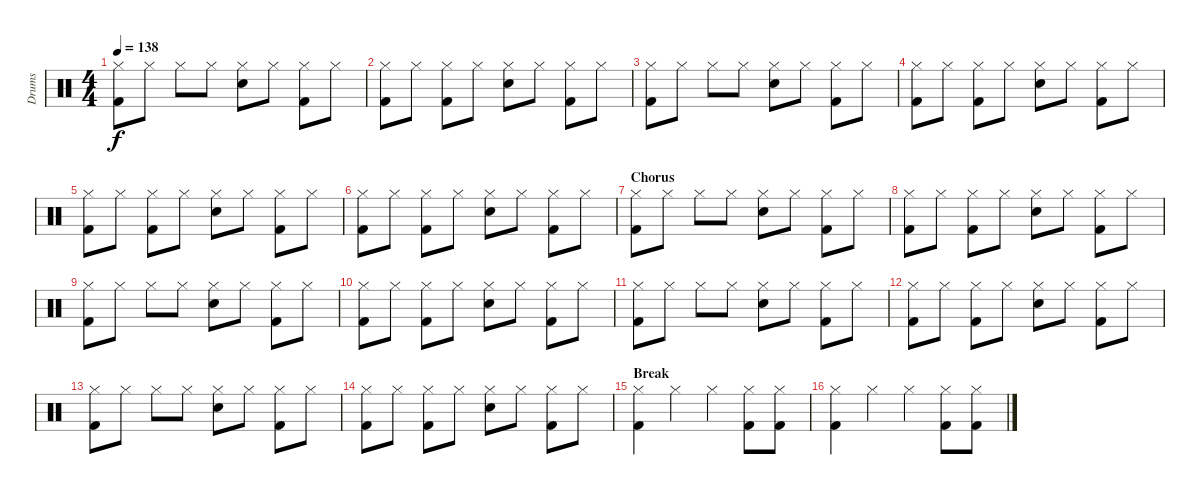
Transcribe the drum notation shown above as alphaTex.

\track ("Drums" "Drums") {instrument percussion}
\staff {score}
\articulation defaults
\ts (4 4)
\tempo 138
\clef neutral
\ks c
("Hi-Hat (closed)" "Kick (hit) 2").8{dy f} "Hi-Hat (closed)".8 "Hi-Hat (closed)".8 "Hi-Hat (closed)".8 ("Hi-Hat (closed)" "Electric Snare (hit)").8 "Hi-Hat (closed)".8 ("Hi-Hat (closed)" "Kick (hit) 2").8 "Hi-Hat (closed)".8 |
("Hi-Hat (closed)" "Kick (hit) 2").8 "Hi-Hat (closed)".8 ("Hi-Hat (closed)" "Kick (hit) 2").8 "Hi-Hat (closed)".8 ("Hi-Hat (closed)" "Electric Snare (hit)").8 "Hi-Hat (closed)".8 ("Hi-Hat (closed)" "Kick (hit) 2").8 "Hi-Hat (closed)".8 |
("Hi-Hat (closed)" "Kick (hit) 2").8 "Hi-Hat (closed)".8 "Hi-Hat (closed)".8 "Hi-Hat (closed)".8 ("Hi-Hat (closed)" "Electric Snare (hit)").8 "Hi-Hat (closed)".8 ("Hi-Hat (closed)" "Kick (hit) 2").8 "Hi-Hat (closed)".8 |
("Hi-Hat (closed)" "Kick (hit) 2").8 "Hi-Hat (closed)".8 ("Hi-Hat (closed)" "Kick (hit) 2").8 "Hi-Hat (closed)".8 ("Hi-Hat (closed)" "Electric Snare (hit)").8 "Hi-Hat (closed)".8 ("Hi-Hat (closed)" "Kick (hit) 2").8 "Hi-Hat (closed)".8 |
("Hi-Hat (closed)" "Kick (hit) 2").8 "Hi-Hat (closed)".8 ("Hi-Hat (closed)" "Kick (hit) 2").8 "Hi-Hat (closed)".8 ("Hi-Hat (closed)" "Electric Snare (hit)").8 "Hi-Hat (closed)".8 ("Hi-Hat (closed)" "Kick (hit) 2").8 "Hi-Hat (closed)".8 |
("Hi-Hat (closed)" "Kick (hit) 2").8 "Hi-Hat (closed)".8 ("Hi-Hat (closed)" "Kick (hit) 2").8 "Hi-Hat (closed)".8 ("Hi-Hat (closed)" "Electric Snare (hit)").8 "Hi-Hat (closed)".8 ("Hi-Hat (closed)" "Kick (hit) 2").8 "Hi-Hat (closed)".8 |
\section ("" "Chorus")
("Hi-Hat (closed)" "Kick (hit) 2").8 "Hi-Hat (closed)".8 "Hi-Hat (closed)".8 "Hi-Hat (closed)".8 ("Hi-Hat (closed)" "Electric Snare (hit)").8 "Hi-Hat (closed)".8 ("Hi-Hat (closed)" "Kick (hit) 2").8 "Hi-Hat (closed)".8 |
("Hi-Hat (closed)" "Kick (hit) 2").8 "Hi-Hat (closed)".8 ("Hi-Hat (closed)" "Kick (hit) 2").8 "Hi-Hat (closed)".8 ("Hi-Hat (closed)" "Electric Snare (hit)").8 "Hi-Hat (closed)".8 ("Hi-Hat (closed)" "Kick (hit) 2").8 "Hi-Hat (closed)".8 |
("Hi-Hat (closed)" "Kick (hit) 2").8 "Hi-Hat (closed)".8 "Hi-Hat (closed)".8 "Hi-Hat (closed)".8 ("Hi-Hat (closed)" "Electric Snare (hit)").8 "Hi-Hat (closed)".8 ("Hi-Hat (closed)" "Kick (hit) 2").8 "Hi-Hat (closed)".8 |
("Hi-Hat (closed)" "Kick (hit) 2").8 "Hi-Hat (closed)".8 ("Hi-Hat (closed)" "Kick (hit) 2").8 "Hi-Hat (closed)".8 ("Hi-Hat (closed)" "Electric Snare (hit)").8 "Hi-Hat (closed)".8 ("Hi-Hat (closed)" "Kick (hit) 2").8 "Hi-Hat (closed)".8 |
("Hi-Hat (closed)" "Kick (hit) 2").8 "Hi-Hat (closed)".8 "Hi-Hat (closed)".8 "Hi-Hat (closed)".8 ("Hi-Hat (closed)" "Electric Snare (hit)").8 "Hi-Hat (closed)".8 ("Hi-Hat (closed)" "Kick (hit) 2").8 "Hi-Hat (closed)".8 |
("Hi-Hat (closed)" "Kick (hit) 2").8 "Hi-Hat (closed)".8 ("Hi-Hat (closed)" "Kick (hit) 2").8 "Hi-Hat (closed)".8 ("Hi-Hat (closed)" "Electric Snare (hit)").8 "Hi-Hat (closed)".8 ("Hi-Hat (closed)" "Kick (hit) 2").8 "Hi-Hat (closed)".8 |
("Hi-Hat (closed)" "Kick (hit) 2").8 "Hi-Hat (closed)".8 "Hi-Hat (closed)".8 "Hi-Hat (closed)".8 ("Hi-Hat (closed)" "Electric Snare (hit)").8 "Hi-Hat (closed)".8 ("Hi-Hat (closed)" "Kick (hit) 2").8 "Hi-Hat (closed)".8 |
("Hi-Hat (closed)" "Kick (hit) 2").8 "Hi-Hat (closed)".8 ("Hi-Hat (closed)" "Kick (hit) 2").8 "Hi-Hat (closed)".8 ("Hi-Hat (closed)" "Electric Snare (hit)").8 "Hi-Hat (closed)".8 ("Hi-Hat (closed)" "Kick (hit) 2").8 "Hi-Hat (closed)".8 |
\section ("" "Break")
("Hi-Hat (closed)" "Kick (hit) 2").4 "Hi-Hat (closed)".4 "Hi-Hat (closed)".4 ("Hi-Hat (closed)" "Kick (hit) 2").8 ("Hi-Hat (closed)" "Kick (hit) 2").8 |
("Hi-Hat (closed)" "Kick (hit) 2").4 "Hi-Hat (closed)".4 "Hi-Hat (closed)".4 ("Hi-Hat (closed)" "Kick (hit) 2").8 ("Hi-Hat (closed)" "Kick (hit) 2").8
